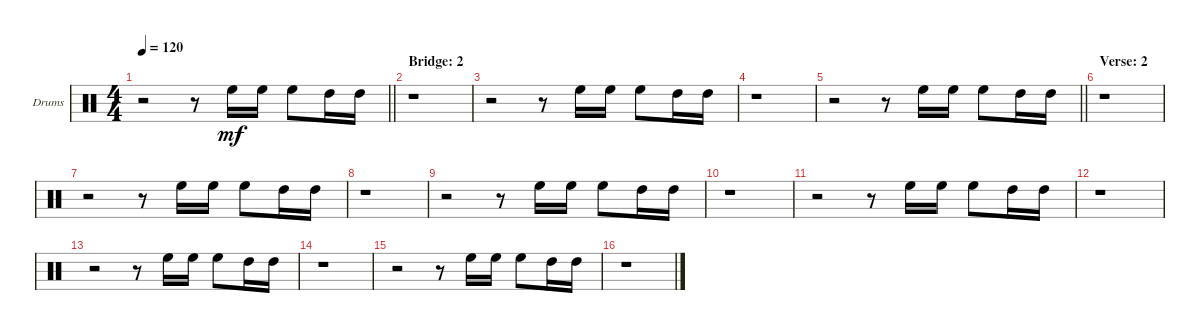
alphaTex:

\bracketExtendMode groupsimilarinstruments
\firstSystemTrackNameOrientation horizontal
\otherSystemsTrackNameOrientation horizontal
\track ("Drumkit" "Drums") {instrument percussion}
\staff {score}
\articulation defaults
\ts (4 4)
\tempo 120
\clef neutral
\barLineRight lightlight
\ks c
r.2{dy mf} r.8 "High Floor Tom (hit)".16 "High Floor Tom (hit)".16 "High Floor Tom (hit)".8 "High Tom (hit)".16 "High Tom (hit)".16 |
\section ("" "Bridge: 2")
r.1 |
r.2 r.8 "High Floor Tom (hit)".16 "High Floor Tom (hit)".16 "High Floor Tom (hit)".8 "High Tom (hit)".16 "High Tom (hit)".16 |
r.1 |
\barLineRight lightlight
r.2 r.8 "High Floor Tom (hit)".16 "High Floor Tom (hit)".16 "High Floor Tom (hit)".8 "High Tom (hit)".16 "High Tom (hit)".16 |
\section ("" "Verse: 2")
r.1 |
r.2 r.8 "High Floor Tom (hit)".16 "High Floor Tom (hit)".16 "High Floor Tom (hit)".8 "High Tom (hit)".16 "High Tom (hit)".16 |
r.1 |
r.2 r.8 "High Floor Tom (hit)".16 "High Floor Tom (hit)".16 "High Floor Tom (hit)".8 "High Tom (hit)".16 "High Tom (hit)".16 |
r.1 |
r.2 r.8 "High Floor Tom (hit)".16 "High Floor Tom (hit)".16 "High Floor Tom (hit)".8 "High Tom (hit)".16 "High Tom (hit)".16 |
r.1 |
r.2 r.8 "High Floor Tom (hit)".16 "High Floor Tom (hit)".16 "High Floor Tom (hit)".8 "High Tom (hit)".16 "High Tom (hit)".16 |
r.1 |
r.2 r.8 "High Floor Tom (hit)".16 "High Floor Tom (hit)".16 "High Floor Tom (hit)".8 "High Tom (hit)".16 "High Tom (hit)".16 |
r.1
